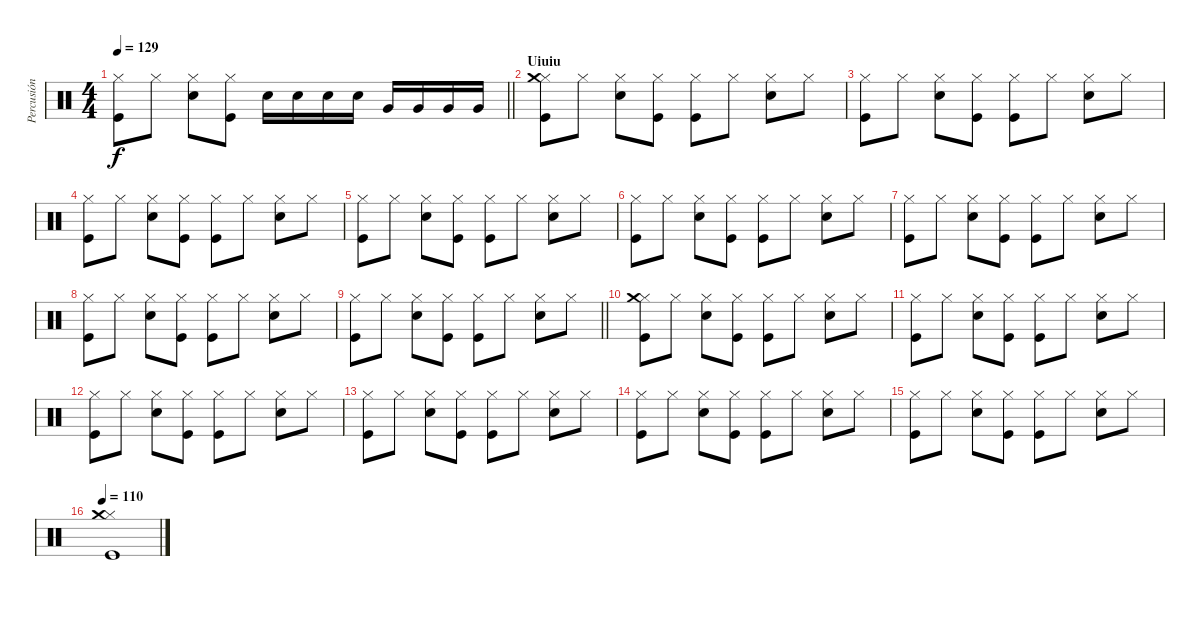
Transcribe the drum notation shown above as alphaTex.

\track ("Percusión" "Percusión") {instrument percussion}
\staff {score}
\articulation defaults
\ts (4 4)
\tempo 129
\clef neutral
\barLineRight lightlight
\ks c
("Hi-Hat (closed)" "Kick (hit)").8{dy f} "Hi-Hat (closed)".8 ("Hi-Hat (closed)" "Electric Snare (hit)").8 ("Hi-Hat (closed)" "Kick (hit)").8 "Electric Snare (hit)".16 "Electric Snare (hit)".16 "Electric Snare (hit)".16 "Electric Snare (hit)".16 "Very Low Tom (hit)".16 "Very Low Tom (hit)".16 "Very Low Tom (hit)".16 "Very Low Tom (hit)".16 |
\section ("" "Uiuiu")
("Hi-Hat (closed)" "Kick (hit)" "Crash medium (hit)").8 "Hi-Hat (closed)".8 ("Hi-Hat (closed)" "Electric Snare (hit)").8 ("Hi-Hat (closed)" "Kick (hit)").8 ("Hi-Hat (closed)" "Kick (hit)").8 "Hi-Hat (closed)".8 ("Hi-Hat (closed)" "Electric Snare (hit)").8 "Hi-Hat (closed)".8 |
("Hi-Hat (closed)" "Kick (hit)").8 "Hi-Hat (closed)".8 ("Hi-Hat (closed)" "Electric Snare (hit)").8 ("Hi-Hat (closed)" "Kick (hit)").8 ("Hi-Hat (closed)" "Kick (hit)").8 "Hi-Hat (closed)".8 ("Hi-Hat (closed)" "Electric Snare (hit)").8 "Hi-Hat (closed)".8 |
("Hi-Hat (closed)" "Kick (hit)").8 "Hi-Hat (closed)".8 ("Hi-Hat (closed)" "Electric Snare (hit)").8 ("Hi-Hat (closed)" "Kick (hit)").8 ("Hi-Hat (closed)" "Kick (hit)").8 "Hi-Hat (closed)".8 ("Hi-Hat (closed)" "Electric Snare (hit)").8 "Hi-Hat (closed)".8 |
("Hi-Hat (closed)" "Kick (hit)").8 "Hi-Hat (closed)".8 ("Hi-Hat (closed)" "Electric Snare (hit)").8 ("Hi-Hat (closed)" "Kick (hit)").8 ("Hi-Hat (closed)" "Kick (hit)").8 "Hi-Hat (closed)".8 ("Hi-Hat (closed)" "Electric Snare (hit)").8 "Hi-Hat (closed)".8 |
("Hi-Hat (closed)" "Kick (hit)").8 "Hi-Hat (closed)".8 ("Hi-Hat (closed)" "Electric Snare (hit)").8 ("Hi-Hat (closed)" "Kick (hit)").8 ("Hi-Hat (closed)" "Kick (hit)").8 "Hi-Hat (closed)".8 ("Hi-Hat (closed)" "Electric Snare (hit)").8 "Hi-Hat (closed)".8 |
("Hi-Hat (closed)" "Kick (hit)").8 "Hi-Hat (closed)".8 ("Hi-Hat (closed)" "Electric Snare (hit)").8 ("Hi-Hat (closed)" "Kick (hit)").8 ("Hi-Hat (closed)" "Kick (hit)").8 "Hi-Hat (closed)".8 ("Hi-Hat (closed)" "Electric Snare (hit)").8 "Hi-Hat (closed)".8 |
("Hi-Hat (closed)" "Kick (hit)").8 "Hi-Hat (closed)".8 ("Hi-Hat (closed)" "Electric Snare (hit)").8 ("Hi-Hat (closed)" "Kick (hit)").8 ("Hi-Hat (closed)" "Kick (hit)").8 "Hi-Hat (closed)".8 ("Hi-Hat (closed)" "Electric Snare (hit)").8 "Hi-Hat (closed)".8 |
\barLineRight lightlight
("Hi-Hat (closed)" "Kick (hit)").8 "Hi-Hat (closed)".8 ("Hi-Hat (closed)" "Electric Snare (hit)").8 ("Hi-Hat (closed)" "Kick (hit)").8 ("Hi-Hat (closed)" "Kick (hit)").8 "Hi-Hat (closed)".8 ("Hi-Hat (closed)" "Electric Snare (hit)").8 "Hi-Hat (closed)".8 |
\section ("" "")
("Hi-Hat (closed)" "Kick (hit)" "Crash medium (hit)").8 "Hi-Hat (closed)".8 ("Hi-Hat (closed)" "Electric Snare (hit)").8 ("Hi-Hat (closed)" "Kick (hit)").8 ("Hi-Hat (closed)" "Kick (hit)").8 "Hi-Hat (closed)".8 ("Hi-Hat (closed)" "Electric Snare (hit)").8 "Hi-Hat (closed)".8 |
("Hi-Hat (closed)" "Kick (hit)").8 "Hi-Hat (closed)".8 ("Hi-Hat (closed)" "Electric Snare (hit)").8 ("Hi-Hat (closed)" "Kick (hit)").8 ("Hi-Hat (closed)" "Kick (hit)").8 "Hi-Hat (closed)".8 ("Hi-Hat (closed)" "Electric Snare (hit)").8 "Hi-Hat (closed)".8 |
("Hi-Hat (closed)" "Kick (hit)").8 "Hi-Hat (closed)".8 ("Hi-Hat (closed)" "Electric Snare (hit)").8 ("Hi-Hat (closed)" "Kick (hit)").8 ("Hi-Hat (closed)" "Kick (hit)").8 "Hi-Hat (closed)".8 ("Hi-Hat (closed)" "Electric Snare (hit)").8 "Hi-Hat (closed)".8 |
("Hi-Hat (closed)" "Kick (hit)").8 "Hi-Hat (closed)".8 ("Hi-Hat (closed)" "Electric Snare (hit)").8 ("Hi-Hat (closed)" "Kick (hit)").8 ("Hi-Hat (closed)" "Kick (hit)").8 "Hi-Hat (closed)".8 ("Hi-Hat (closed)" "Electric Snare (hit)").8 "Hi-Hat (closed)".8 |
("Hi-Hat (closed)" "Kick (hit)").8 "Hi-Hat (closed)".8 ("Hi-Hat (closed)" "Electric Snare (hit)").8 ("Hi-Hat (closed)" "Kick (hit)").8 ("Hi-Hat (closed)" "Kick (hit)").8 "Hi-Hat (closed)".8 ("Hi-Hat (closed)" "Electric Snare (hit)").8 "Hi-Hat (closed)".8 |
("Hi-Hat (closed)" "Kick (hit)").8 "Hi-Hat (closed)".8 ("Hi-Hat (closed)" "Electric Snare (hit)").8 ("Hi-Hat (closed)" "Kick (hit)").8 ("Hi-Hat (closed)" "Kick (hit)").8 "Hi-Hat (closed)".8 ("Hi-Hat (closed)" "Electric Snare (hit)").8 "Hi-Hat (closed)".8 |
\tempo 110
("Hi-Hat (closed)" "Kick (hit)" "Crash medium (hit)").1
